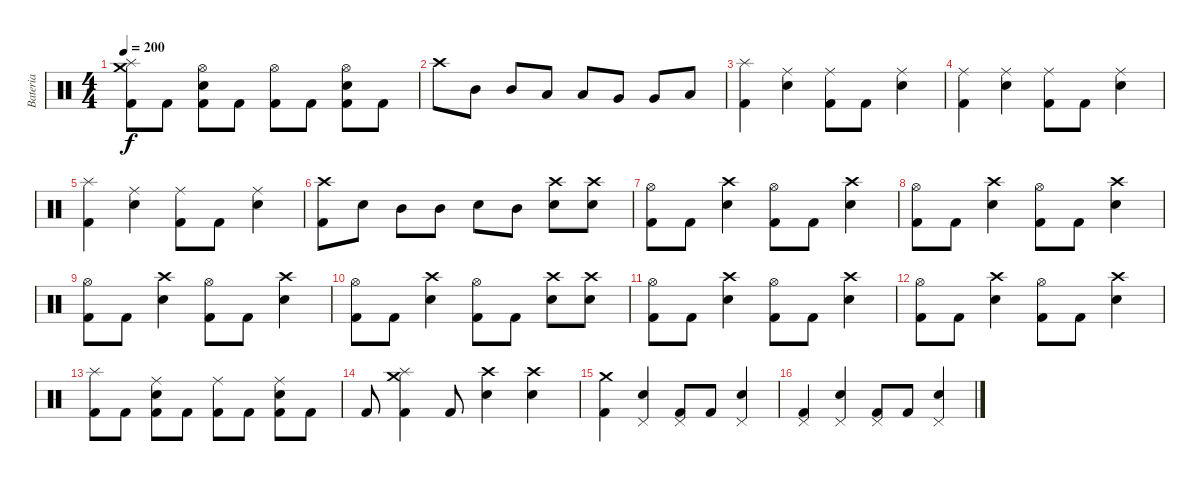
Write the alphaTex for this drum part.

\track ("Bateria " "Bateria ") {instrument percussion}
\staff {score}
\articulation defaults
\ts (4 4)
\tempo 200
\clef neutral
\ks c
("Kick (hit) 2" "Crash medium (hit)" "Splash (hit)").8{dy f} "Kick (hit) 2".8 ("Kick (hit) 2" "Electric Snare (hit)" "Hi-Hat (open)").8 "Kick (hit) 2".8 ("Kick (hit) 2" "Hi-Hat (open)").8 "Kick (hit) 2".8 ("Kick (hit) 2" "Electric Snare (hit)" "Hi-Hat (open)").8 "Kick (hit) 2".8 |
"Crash high (hit)".8 "Mid Tom (hit)".8 "Mid Tom (hit)".8 "Low Tom (hit)".8 "Low Tom (hit)".8 "Very Low Tom (hit)".8 "Very Low Tom (hit)".8 "Low Floor Tom (hit)".8 |
("Kick (hit) 2" "Splash (hit)").4 ("Electric Snare (hit)" "Ride (middle)").4 ("Kick (hit) 2" "Ride (middle)").8 "Kick (hit) 2".8 ("Electric Snare (hit)" "Ride (middle)").4 |
("Kick (hit) 2" "Ride (middle)").4 ("Electric Snare (hit)" "Ride (middle)").4 ("Kick (hit) 2" "Ride (middle)").8 "Kick (hit) 2".8 ("Electric Snare (hit)" "Ride (middle)").4 |
("Kick (hit) 2" "Splash (hit)").4 ("Electric Snare (hit)" "Ride (middle)").4 ("Kick (hit) 2" "Ride (middle)").8 "Kick (hit) 2".8 ("Electric Snare (hit)" "Ride (middle)").4 |
("Kick (hit) 2" "Crash high (hit)").8 "Electric Snare (hit)".8 "Mid Tom (hit)".8 "Mid Tom (hit)".8 "Electric Snare (hit)".8 "Mid Tom (hit)".8 ("Electric Snare (hit)" "Crash high (hit)").8 ("Electric Snare (hit)" "Crash high (hit)").8 |
("Kick (hit) 2" "Hi-Hat (open)").8 "Kick (hit) 2".8 ("Electric Snare (hit)" "Crash high (hit)").4 ("Kick (hit) 2" "Hi-Hat (open)").8 "Kick (hit) 2".8 ("Electric Snare (hit)" "Crash high (hit)").4 |
("Kick (hit) 2" "Hi-Hat (open)").8 "Kick (hit) 2".8 ("Electric Snare (hit)" "Crash high (hit)").4 ("Kick (hit) 2" "Hi-Hat (open)").8 "Kick (hit) 2".8 ("Electric Snare (hit)" "Crash high (hit)").4 |
("Kick (hit) 2" "Hi-Hat (open)").8 "Kick (hit) 2".8 ("Electric Snare (hit)" "Crash high (hit)").4 ("Kick (hit) 2" "Hi-Hat (open)").8 "Kick (hit) 2".8 ("Electric Snare (hit)" "Crash high (hit)").4 |
("Kick (hit) 2" "Hi-Hat (open)").8 "Kick (hit) 2".8 ("Electric Snare (hit)" "Crash high (hit)").4 ("Kick (hit) 2" "Hi-Hat (open)").8 "Kick (hit) 2".8 ("Electric Snare (hit)" "Crash high (hit)").8 ("Electric Snare (hit)" "Crash high (hit)").8 |
("Kick (hit) 2" "Hi-Hat (open)").8 "Kick (hit) 2".8 ("Electric Snare (hit)" "Crash high (hit)").4 ("Kick (hit) 2" "Hi-Hat (open)").8 "Kick (hit) 2".8 ("Electric Snare (hit)" "Crash high (hit)").4 |
("Kick (hit) 2" "Hi-Hat (open)").8 "Kick (hit) 2".8 ("Electric Snare (hit)" "Crash high (hit)").4 ("Kick (hit) 2" "Hi-Hat (open)").8 "Kick (hit) 2".8 ("Electric Snare (hit)" "Crash high (hit)").4 |
("Kick (hit) 2" "Splash (hit)").8 "Kick (hit) 2".8 ("Kick (hit) 2" "Electric Snare (hit)" "Ride (middle)").8 "Kick (hit) 2".8 ("Kick (hit) 2" "Ride (middle)").8 "Kick (hit) 2".8 ("Kick (hit) 2" "Electric Snare (hit)" "Ride (middle)").8 "Kick (hit) 2".8 |
"Kick (hit) 2".8 ("Kick (hit) 2" "Crash medium (hit)" "Splash (hit)").4 "Kick (hit) 2".8 ("Electric Snare (hit)" "Crash high (hit)").4 ("Electric Snare (hit)" "Crash high (hit)").4 |
("Kick (hit) 2" "Crash medium (hit)").4 ("Electric Snare (hit)" "Pedal Hi-Hat (hit)").4 ("Kick (hit) 2" "Pedal Hi-Hat (hit)").8 "Kick (hit) 2".8 ("Electric Snare (hit)" "Pedal Hi-Hat (hit)").4 |
("Kick (hit) 2" "Pedal Hi-Hat (hit)").4 ("Electric Snare (hit)" "Pedal Hi-Hat (hit)").4 ("Kick (hit) 2" "Pedal Hi-Hat (hit)").8 "Kick (hit) 2".8 ("Electric Snare (hit)" "Pedal Hi-Hat (hit)").4
